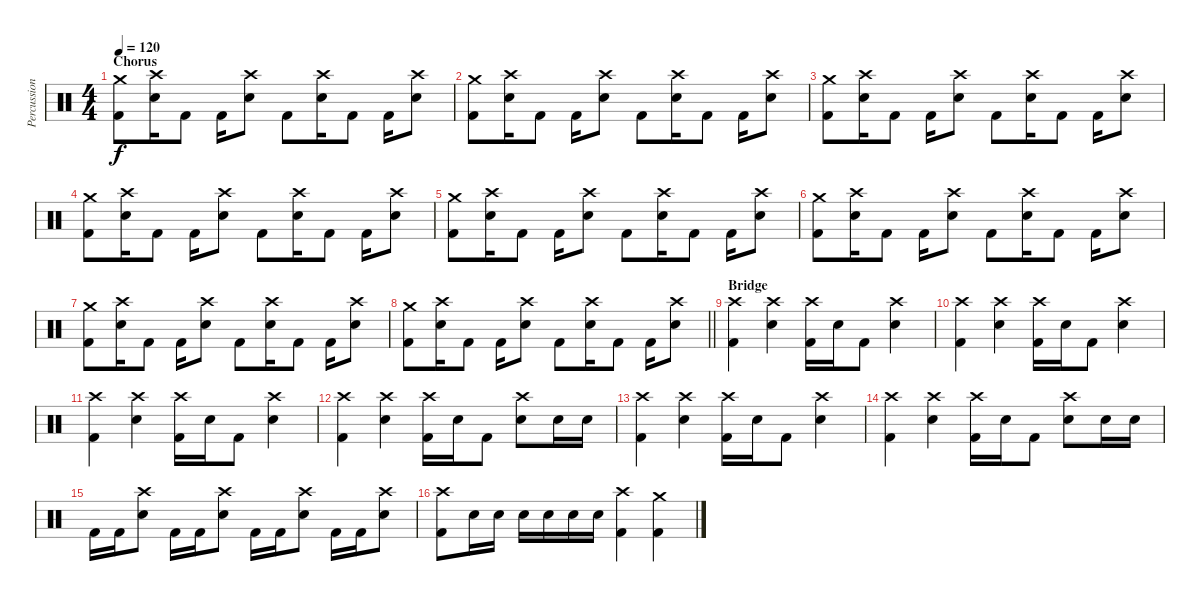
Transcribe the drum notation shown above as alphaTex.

\track ("Percussion" "Percussion") {instrument percussion}
\staff {score}
\articulation defaults
\ts (4 4)
\section ("" "Chorus")
\tempo 120
\clef neutral
\ks c
("Crash medium (hit)" "Kick (hit) 2").8{dy f} ("Crash high (hit)" "Snare (hit) 2").16 "Kick (hit) 2".8 "Kick (hit) 2".16 ("Crash high (hit)" "Snare (hit) 2").8 "Kick (hit) 2".8 ("Crash high (hit)" "Snare (hit) 2").16 "Kick (hit) 2".8 "Kick (hit) 2".16 ("Crash high (hit)" "Snare (hit) 2").8 |
("Crash medium (hit)" "Kick (hit) 2").8 ("Crash high (hit)" "Snare (hit) 2").16 "Kick (hit) 2".8 "Kick (hit) 2".16 ("Crash high (hit)" "Snare (hit) 2").8 "Kick (hit) 2".8 ("Crash high (hit)" "Snare (hit) 2").16 "Kick (hit) 2".8 "Kick (hit) 2".16 ("Crash high (hit)" "Snare (hit) 2").8 |
("Crash medium (hit)" "Kick (hit) 2").8 ("Crash high (hit)" "Snare (hit) 2").16 "Kick (hit) 2".8 "Kick (hit) 2".16 ("Crash high (hit)" "Snare (hit) 2").8 "Kick (hit) 2".8 ("Crash high (hit)" "Snare (hit) 2").16 "Kick (hit) 2".8 "Kick (hit) 2".16 ("Crash high (hit)" "Snare (hit) 2").8 |
("Crash medium (hit)" "Kick (hit) 2").8 ("Crash high (hit)" "Snare (hit) 2").16 "Kick (hit) 2".8 "Kick (hit) 2".16 ("Crash high (hit)" "Snare (hit) 2").8 "Kick (hit) 2".8 ("Crash high (hit)" "Snare (hit) 2").16 "Kick (hit) 2".8 "Kick (hit) 2".16 ("Crash high (hit)" "Snare (hit) 2").8 |
("Crash medium (hit)" "Kick (hit) 2").8 ("Crash high (hit)" "Snare (hit) 2").16 "Kick (hit) 2".8 "Kick (hit) 2".16 ("Crash high (hit)" "Snare (hit) 2").8 "Kick (hit) 2".8 ("Crash high (hit)" "Snare (hit) 2").16 "Kick (hit) 2".8 "Kick (hit) 2".16 ("Crash high (hit)" "Snare (hit) 2").8 |
("Crash medium (hit)" "Kick (hit) 2").8 ("Crash high (hit)" "Snare (hit) 2").16 "Kick (hit) 2".8 "Kick (hit) 2".16 ("Crash high (hit)" "Snare (hit) 2").8 "Kick (hit) 2".8 ("Crash high (hit)" "Snare (hit) 2").16 "Kick (hit) 2".8 "Kick (hit) 2".16 ("Crash high (hit)" "Snare (hit) 2").8 |
("Crash medium (hit)" "Kick (hit) 2").8 ("Crash high (hit)" "Snare (hit) 2").16 "Kick (hit) 2".8 "Kick (hit) 2".16 ("Crash high (hit)" "Snare (hit) 2").8 "Kick (hit) 2".8 ("Crash high (hit)" "Snare (hit) 2").16 "Kick (hit) 2".8 "Kick (hit) 2".16 ("Crash high (hit)" "Snare (hit) 2").8 |
\barLineRight lightlight
("Crash medium (hit)" "Kick (hit) 2").8 ("Crash high (hit)" "Snare (hit) 2").16 "Kick (hit) 2".8 "Kick (hit) 2".16 ("Crash high (hit)" "Snare (hit) 2").8 "Kick (hit) 2".8 ("Crash high (hit)" "Snare (hit) 2").16 "Kick (hit) 2".8 "Kick (hit) 2".16 ("Crash high (hit)" "Snare (hit) 2").8 |
\section ("" "Bridge")
("Crash high (hit)" "Kick (hit) 2").4 ("Crash high (hit)" "Snare (hit) 2").4 ("Crash high (hit)" "Kick (hit) 2").16 "Snare (hit) 2".16 "Kick (hit) 2".8 ("Crash high (hit)" "Snare (hit) 2").4 |
("Crash high (hit)" "Kick (hit) 2").4 ("Crash high (hit)" "Snare (hit) 2").4 ("Crash high (hit)" "Kick (hit) 2").16 "Snare (hit) 2".16 "Kick (hit) 2".8 ("Crash high (hit)" "Snare (hit) 2").4 |
("Crash high (hit)" "Kick (hit) 2").4 ("Crash high (hit)" "Snare (hit) 2").4 ("Crash high (hit)" "Kick (hit) 2").16 "Snare (hit) 2".16 "Kick (hit) 2".8 ("Crash high (hit)" "Snare (hit) 2").4 |
("Crash high (hit)" "Kick (hit) 2").4 ("Crash high (hit)" "Snare (hit) 2").4 ("Crash high (hit)" "Kick (hit) 2").16 "Snare (hit) 2".16 "Kick (hit) 2".8 ("Crash high (hit)" "Snare (hit) 2").8 "Snare (hit) 2".16 "Snare (hit) 2".16 |
("Crash high (hit)" "Kick (hit) 2").4 ("Crash high (hit)" "Snare (hit) 2").4 ("Crash high (hit)" "Kick (hit) 2").16 "Snare (hit) 2".16 "Kick (hit) 2".8 ("Crash high (hit)" "Snare (hit) 2").4 |
("Crash high (hit)" "Kick (hit) 2").4 ("Crash high (hit)" "Snare (hit) 2").4 ("Crash high (hit)" "Kick (hit) 2").16 "Snare (hit) 2".16 "Kick (hit) 2".8 ("Crash high (hit)" "Snare (hit) 2").8 "Snare (hit) 2".16 "Snare (hit) 2".16 |
"Kick (hit) 2".16 "Kick (hit) 2".16 ("Crash high (hit)" "Snare (hit) 2").8 "Kick (hit) 2".16 "Kick (hit) 2".16 ("Crash high (hit)" "Snare (hit) 2").8 "Kick (hit) 2".16 "Kick (hit) 2".16 ("Crash high (hit)" "Snare (hit) 2").8 "Kick (hit) 2".16 "Kick (hit) 2".16 ("Crash high (hit)" "Snare (hit) 2").8 |
("Crash high (hit)" "Kick (hit) 2").8 "Snare (hit) 2".16 "Snare (hit) 2".16 "Snare (hit) 2".16 "Snare (hit) 2".16 "Snare (hit) 2".16 "Snare (hit) 2".16 ("Crash high (hit)" "Kick (hit) 2").4 ("Crash medium (hit)" "Kick (hit) 2").4
